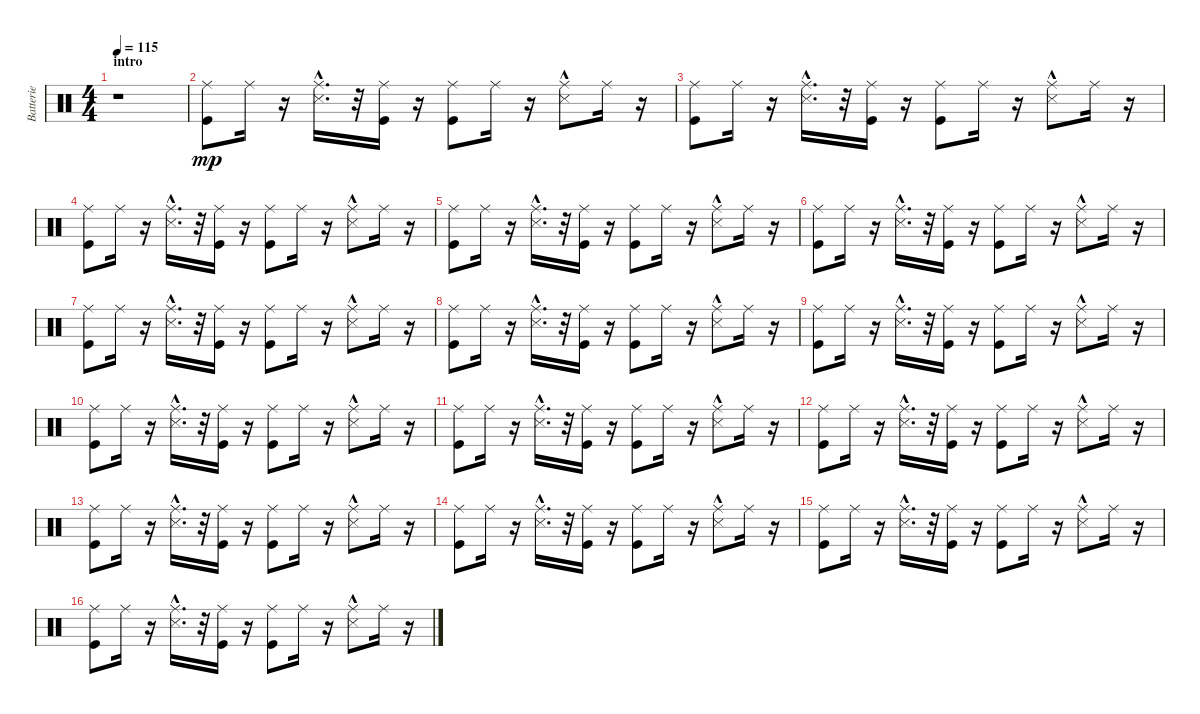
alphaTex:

\track ("Batterie" "Batterie") {instrument percussion}
\staff {score}
\articulation defaults
\ts (4 4)
\section ("" "intro")
\tempo 115
\clef neutral
\ks c
r.1{dy mp} |
("Kick (hit)" "Ride (middle)").8 "Ride (middle)".16 r.16 ("Snare (side stick) 3"{hac} "Ride (middle)").16{d} r.32 ("Ride (middle)" "Kick (hit)").16 r.16 ("Ride (middle)" "Kick (hit)").8 "Ride (middle)".16 r.16 ("Snare (side stick) 3"{hac} "Ride (middle)").8 "Ride (middle)".16 r.16 |
("Kick (hit)" "Ride (middle)").8 "Ride (middle)".16 r.16 ("Snare (side stick) 3"{hac} "Ride (middle)").16{d} r.32 ("Ride (middle)" "Kick (hit)").16 r.16 ("Ride (middle)" "Kick (hit)").8 "Ride (middle)".16 r.16 ("Snare (side stick) 3"{hac} "Ride (middle)").8 "Ride (middle)".16 r.16 |
("Kick (hit)" "Ride (middle)").8 "Ride (middle)".16 r.16 ("Snare (side stick) 3"{hac} "Ride (middle)").16{d} r.32 ("Ride (middle)" "Kick (hit)").16 r.16 ("Ride (middle)" "Kick (hit)").8 "Ride (middle)".16 r.16 ("Snare (side stick) 3"{hac} "Ride (middle)").8 "Ride (middle)".16 r.16 |
("Kick (hit)" "Ride (middle)").8 "Ride (middle)".16 r.16 ("Snare (side stick) 3"{hac} "Ride (middle)").16{d} r.32 ("Ride (middle)" "Kick (hit)").16 r.16 ("Ride (middle)" "Kick (hit)").8 "Ride (middle)".16 r.16 ("Snare (side stick) 3"{hac} "Ride (middle)").8 "Ride (middle)".16 r.16 |
("Kick (hit)" "Ride (middle)").8 "Ride (middle)".16 r.16 ("Snare (side stick) 3"{hac} "Ride (middle)").16{d} r.32 ("Ride (middle)" "Kick (hit)").16 r.16 ("Ride (middle)" "Kick (hit)").8 "Ride (middle)".16 r.16 ("Snare (side stick) 3"{hac} "Ride (middle)").8 "Ride (middle)".16 r.16 |
("Kick (hit)" "Ride (middle)").8 "Ride (middle)".16 r.16 ("Snare (side stick) 3"{hac} "Ride (middle)").16{d} r.32 ("Ride (middle)" "Kick (hit)").16 r.16 ("Ride (middle)" "Kick (hit)").8 "Ride (middle)".16 r.16 ("Snare (side stick) 3"{hac} "Ride (middle)").8 "Ride (middle)".16 r.16 |
("Kick (hit)" "Ride (middle)").8 "Ride (middle)".16 r.16 ("Snare (side stick) 3"{hac} "Ride (middle)").16{d} r.32 ("Ride (middle)" "Kick (hit)").16 r.16 ("Ride (middle)" "Kick (hit)").8 "Ride (middle)".16 r.16 ("Snare (side stick) 3"{hac} "Ride (middle)").8 "Ride (middle)".16 r.16 |
("Kick (hit)" "Ride (middle)").8 "Ride (middle)".16 r.16 ("Snare (side stick) 3"{hac} "Ride (middle)").16{d} r.32 ("Ride (middle)" "Kick (hit)").16 r.16 ("Ride (middle)" "Kick (hit)").8 "Ride (middle)".16 r.16 ("Snare (side stick) 3"{hac} "Ride (middle)").8 "Ride (middle)".16 r.16 |
("Kick (hit)" "Ride (middle)").8 "Ride (middle)".16 r.16 ("Snare (side stick) 3"{hac} "Ride (middle)").16{d} r.32 ("Ride (middle)" "Kick (hit)").16 r.16 ("Ride (middle)" "Kick (hit)").8 "Ride (middle)".16 r.16 ("Snare (side stick) 3"{hac} "Ride (middle)").8 "Ride (middle)".16 r.16 |
("Kick (hit)" "Ride (middle)").8 "Ride (middle)".16 r.16 ("Snare (side stick) 3"{hac} "Ride (middle)").16{d} r.32 ("Ride (middle)" "Kick (hit)").16 r.16 ("Ride (middle)" "Kick (hit)").8 "Ride (middle)".16 r.16 ("Snare (side stick) 3"{hac} "Ride (middle)").8 "Ride (middle)".16 r.16 |
("Kick (hit)" "Ride (middle)").8 "Ride (middle)".16 r.16 ("Snare (side stick) 3"{hac} "Ride (middle)").16{d} r.32 ("Ride (middle)" "Kick (hit)").16 r.16 ("Ride (middle)" "Kick (hit)").8 "Ride (middle)".16 r.16 ("Snare (side stick) 3"{hac} "Ride (middle)").8 "Ride (middle)".16 r.16 |
("Kick (hit)" "Ride (middle)").8 "Ride (middle)".16 r.16 ("Snare (side stick) 3"{hac} "Ride (middle)").16{d} r.32 ("Ride (middle)" "Kick (hit)").16 r.16 ("Ride (middle)" "Kick (hit)").8 "Ride (middle)".16 r.16 ("Snare (side stick) 3"{hac} "Ride (middle)").8 "Ride (middle)".16 r.16 |
("Kick (hit)" "Ride (middle)").8 "Ride (middle)".16 r.16 ("Snare (side stick) 3"{hac} "Ride (middle)").16{d} r.32 ("Ride (middle)" "Kick (hit)").16 r.16 ("Ride (middle)" "Kick (hit)").8 "Ride (middle)".16 r.16 ("Snare (side stick) 3"{hac} "Ride (middle)").8 "Ride (middle)".16 r.16 |
("Kick (hit)" "Ride (middle)").8 "Ride (middle)".16 r.16 ("Snare (side stick) 3"{hac} "Ride (middle)").16{d} r.32 ("Ride (middle)" "Kick (hit)").16 r.16 ("Ride (middle)" "Kick (hit)").8 "Ride (middle)".16 r.16 ("Snare (side stick) 3"{hac} "Ride (middle)").8 "Ride (middle)".16 r.16 |
("Kick (hit)" "Ride (middle)").8 "Ride (middle)".16 r.16 ("Snare (side stick) 3"{hac} "Ride (middle)").16{d} r.32 ("Ride (middle)" "Kick (hit)").16 r.16 ("Ride (middle)" "Kick (hit)").8 "Ride (middle)".16 r.16 ("Snare (side stick) 3"{hac} "Ride (middle)").8 "Ride (middle)".16 r.16
